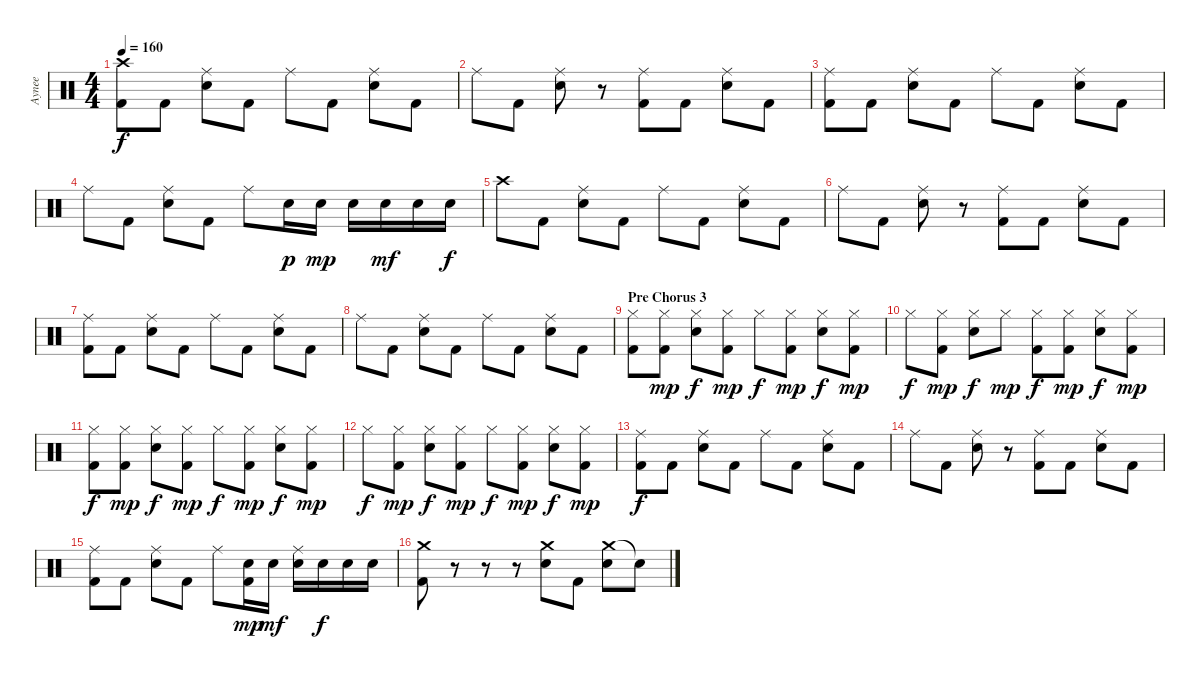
\track ("Aynee " "Aynee ") {instrument percussion}
\staff {score}
\articulation defaults
\ts (4 4)
\tempo 160
\clef neutral
\ks c
("Crash high (hit)" "Kick (hit) 2").8{dy f} "Kick (hit) 2".8 ("Ride (middle)" "Electric Snare (hit)").8 "Kick (hit) 2".8 "Ride (middle)".8 "Kick (hit) 2".8 ("Ride (middle)" "Electric Snare (hit)").8 "Kick (hit) 2".8 |
"Ride (middle)".8 "Kick (hit) 2".8 ("Ride (middle)" "Electric Snare (hit)").8 r.8 ("Ride (middle)" "Kick (hit) 2").8 "Kick (hit) 2".8 ("Ride (middle)" "Electric Snare (hit)").8 "Kick (hit) 2".8 |
("Ride (middle)" "Kick (hit) 2").8 "Kick (hit) 2".8 ("Ride (middle)" "Electric Snare (hit)").8 "Kick (hit) 2".8 "Ride (middle)".8 "Kick (hit) 2".8 ("Ride (middle)" "Electric Snare (hit)").8 "Kick (hit) 2".8 |
"Ride (middle)".8 "Kick (hit) 2".8 ("Ride (middle)" "Electric Snare (hit)").8 "Kick (hit) 2".8 "Ride (middle)".8 "Electric Snare (hit)".16{dy p} "Electric Snare (hit)".16{dy mp} "Electric Snare (hit)".16 "Electric Snare (hit)".16{dy mf} "Electric Snare (hit)".16 "Electric Snare (hit)".16{dy f} |
"Crash high (hit)".8 "Kick (hit) 2".8 ("Ride (middle)" "Electric Snare (hit)").8 "Kick (hit) 2".8 "Ride (middle)".8 "Kick (hit) 2".8 ("Ride (middle)" "Electric Snare (hit)").8 "Kick (hit) 2".8 |
"Ride (middle)".8 "Kick (hit) 2".8 ("Ride (middle)" "Electric Snare (hit)").8 r.8 ("Ride (middle)" "Kick (hit) 2").8 "Kick (hit) 2".8 ("Ride (middle)" "Electric Snare (hit)").8 "Kick (hit) 2".8 |
("Ride (middle)" "Kick (hit) 2").8 "Kick (hit) 2".8 ("Ride (middle)" "Electric Snare (hit)").8 "Kick (hit) 2".8 "Ride (middle)".8 "Kick (hit) 2".8 ("Ride (middle)" "Electric Snare (hit)").8 "Kick (hit) 2".8 |
"Ride (middle)".8 "Kick (hit) 2".8 ("Ride (middle)" "Electric Snare (hit)").8 "Kick (hit) 2".8 "Ride (middle)".8 "Kick (hit) 2".8 ("Ride (middle)" "Electric Snare (hit)").8 "Kick (hit) 2".8 |
\section ("" "Pre Chorus 3")
("Hi-Hat (closed)" "Kick (hit) 2").8 ("Hi-Hat (closed)" "Kick (hit) 2").8{dy mp} ("Hi-Hat (closed)" "Electric Snare (hit)").8{dy f} ("Hi-Hat (closed)" "Kick (hit) 2").8{dy mp} "Hi-Hat (closed)".8{dy f} ("Hi-Hat (closed)" "Kick (hit) 2").8{dy mp} ("Hi-Hat (closed)" "Electric Snare (hit)").8{dy f} ("Hi-Hat (closed)" "Kick (hit) 2").8{dy mp} |
"Hi-Hat (closed)".8{dy f} ("Hi-Hat (closed)" "Kick (hit) 2").8{dy mp} ("Hi-Hat (closed)" "Electric Snare (hit)").8{dy f} "Hi-Hat (closed)".8{dy mp} ("Hi-Hat (closed)" "Kick (hit) 2").8{dy f} ("Hi-Hat (closed)" "Kick (hit) 2").8{dy mp} ("Hi-Hat (closed)" "Electric Snare (hit)").8{dy f} ("Hi-Hat (closed)" "Kick (hit) 2").8{dy mp} |
("Hi-Hat (closed)" "Kick (hit) 2").8{dy f} ("Hi-Hat (closed)" "Kick (hit) 2").8{dy mp} ("Hi-Hat (closed)" "Electric Snare (hit)").8{dy f} ("Hi-Hat (closed)" "Kick (hit) 2").8{dy mp} "Hi-Hat (closed)".8{dy f} ("Hi-Hat (closed)" "Kick (hit) 2").8{dy mp} ("Hi-Hat (closed)" "Electric Snare (hit)").8{dy f} ("Hi-Hat (closed)" "Kick (hit) 2").8{dy mp} |
"Hi-Hat (closed)".8{dy f} ("Hi-Hat (closed)" "Kick (hit) 2").8{dy mp} ("Hi-Hat (closed)" "Electric Snare (hit)").8{dy f} ("Hi-Hat (closed)" "Kick (hit) 2").8{dy mp} "Hi-Hat (closed)".8{dy f} ("Hi-Hat (closed)" "Kick (hit) 2").8{dy mp} ("Hi-Hat (closed)" "Electric Snare (hit)").8{dy f} ("Hi-Hat (closed)" "Kick (hit) 2").8{dy mp} |
("Ride (middle)" "Kick (hit) 2").8{dy f} "Kick (hit) 2".8 ("Ride (middle)" "Electric Snare (hit)").8 "Kick (hit) 2".8 "Ride (middle)".8 "Kick (hit) 2".8 ("Ride (middle)" "Electric Snare (hit)").8 "Kick (hit) 2".8 |
"Ride (middle)".8 "Kick (hit) 2".8 ("Ride (middle)" "Electric Snare (hit)").8 r.8 ("Ride (middle)" "Kick (hit) 2").8 "Kick (hit) 2".8 ("Ride (middle)" "Electric Snare (hit)").8 "Kick (hit) 2".8 |
("Ride (middle)" "Kick (hit) 2").8 "Kick (hit) 2".8 ("Ride (middle)" "Electric Snare (hit)").8 "Kick (hit) 2".8 "Ride (middle)".8 ("Electric Snare (hit)" "Kick (hit) 2").16{dy mp} "Electric Snare (hit)".16{dy mf} ("Ride (middle)" "Electric Snare (hit)").16 "Electric Snare (hit)".16{dy f} "Electric Snare (hit)".16 "Electric Snare (hit)".16 |
("Crash medium (hit)" "Kick (hit) 2").8 r.8 r.8 r.8 ("Crash medium (hit)" "Electric Snare (hit)").8 "Kick (hit) 2".8 ("Crash medium (hit)" "Electric Snare (hit)").8 "Snare (hit)"{t}.8
